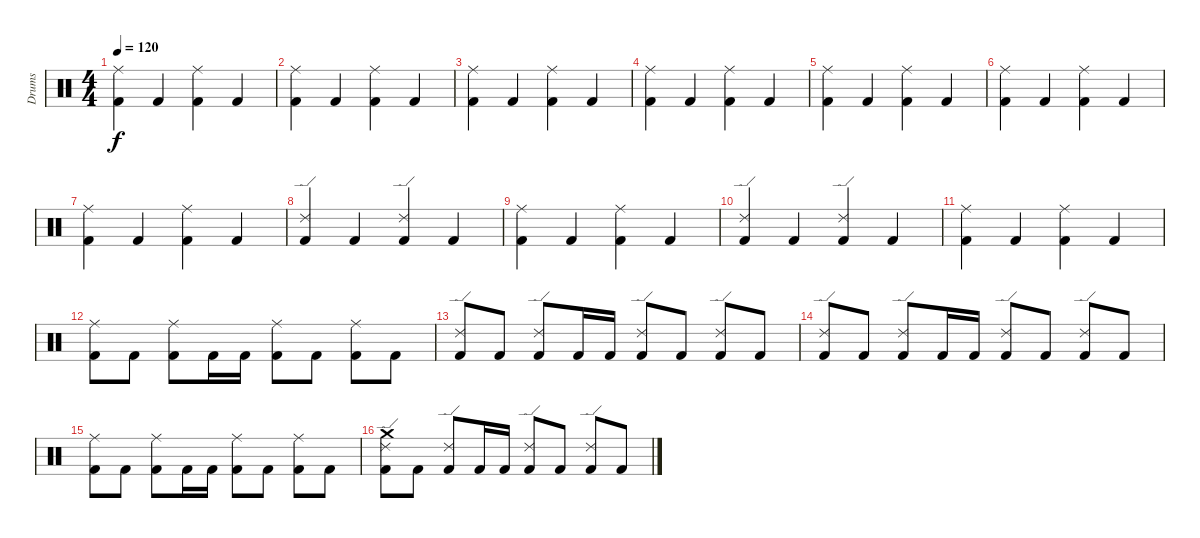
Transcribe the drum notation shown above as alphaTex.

\track ("Drums" "Drums") {instrument percussion}
\staff {score}
\articulation defaults
\ts (4 4)
\tempo 120
\clef neutral
\ks c
("Ride (middle)" "Kick (hit) 2").4{dy f} "Kick (hit) 2".4 ("Ride (middle)" "Kick (hit) 2").4 "Kick (hit) 2".4 |
("Ride (middle)" "Kick (hit) 2").4 "Kick (hit) 2".4 ("Ride (middle)" "Kick (hit) 2").4 "Kick (hit) 2".4 |
("Ride (middle)" "Kick (hit) 2").4 "Kick (hit) 2".4 ("Ride (middle)" "Kick (hit) 2").4 "Kick (hit) 2".4 |
("Ride (middle)" "Kick (hit) 2").4 "Kick (hit) 2".4 ("Ride (middle)" "Kick (hit) 2").4 "Kick (hit) 2".4 |
("Ride (middle)" "Kick (hit) 2").4 "Kick (hit) 2".4 ("Ride (middle)" "Kick (hit) 2").4 "Kick (hit) 2".4 |
("Ride (middle)" "Kick (hit) 2").4 "Kick (hit) 2".4 ("Ride (middle)" "Kick (hit) 2").4 "Kick (hit) 2".4 |
("Ride (middle)" "Kick (hit) 2").4 "Kick (hit) 2".4 ("Ride (middle)" "Kick (hit) 2").4 "Kick (hit) 2".4 |
("Ride (edge) 2" "Kick (hit) 2").4 "Kick (hit) 2".4 ("Ride (edge) 2" "Kick (hit) 2").4 "Kick (hit) 2".4 |
("Ride (middle)" "Kick (hit) 2").4 "Kick (hit) 2".4 ("Ride (middle)" "Kick (hit) 2").4 "Kick (hit) 2".4 |
("Ride (edge) 2" "Kick (hit) 2").4 "Kick (hit) 2".4 ("Ride (edge) 2" "Kick (hit) 2").4 "Kick (hit) 2".4 |
("Ride (middle)" "Kick (hit) 2").4 "Kick (hit) 2".4 ("Ride (middle)" "Kick (hit) 2").4 "Kick (hit) 2".4 |
("Ride (middle)" "Kick (hit) 2").8 "Kick (hit) 2".8 ("Ride (middle)" "Kick (hit) 2").8 "Kick (hit) 2".16 "Kick (hit) 2".16 ("Ride (middle)" "Kick (hit) 2").8 "Kick (hit) 2".8 ("Ride (middle)" "Kick (hit) 2").8 "Kick (hit) 2".8 |
("Ride (edge) 2" "Kick (hit) 2").8 "Kick (hit) 2".8 ("Ride (edge) 2" "Kick (hit) 2").8 "Kick (hit) 2".16 "Kick (hit) 2".16 ("Ride (edge) 2" "Kick (hit) 2").8 "Kick (hit) 2".8 ("Ride (edge) 2" "Kick (hit) 2").8 "Kick (hit) 2".8 |
("Ride (edge) 2" "Kick (hit) 2").8 "Kick (hit) 2".8 ("Ride (edge) 2" "Kick (hit) 2").8 "Kick (hit) 2".16 "Kick (hit) 2".16 ("Ride (edge) 2" "Kick (hit) 2").8 "Kick (hit) 2".8 ("Ride (edge) 2" "Kick (hit) 2").8 "Kick (hit) 2".8 |
("Ride (middle)" "Kick (hit) 2").8 "Kick (hit) 2".8 ("Ride (middle)" "Kick (hit) 2").8 "Kick (hit) 2".16 "Kick (hit) 2".16 ("Ride (middle)" "Kick (hit) 2").8 "Kick (hit) 2".8 ("Ride (middle)" "Kick (hit) 2").8 "Kick (hit) 2".8 |
("Crash medium (hit)" "Ride (edge) 2" "Kick (hit) 2").8 "Kick (hit) 2".8 ("Ride (edge) 2" "Kick (hit) 2").8 "Kick (hit) 2".16 "Kick (hit) 2".16 ("Ride (edge) 2" "Kick (hit) 2").8 "Kick (hit) 2".8 ("Ride (edge) 2" "Kick (hit) 2").8 "Kick (hit) 2".8
